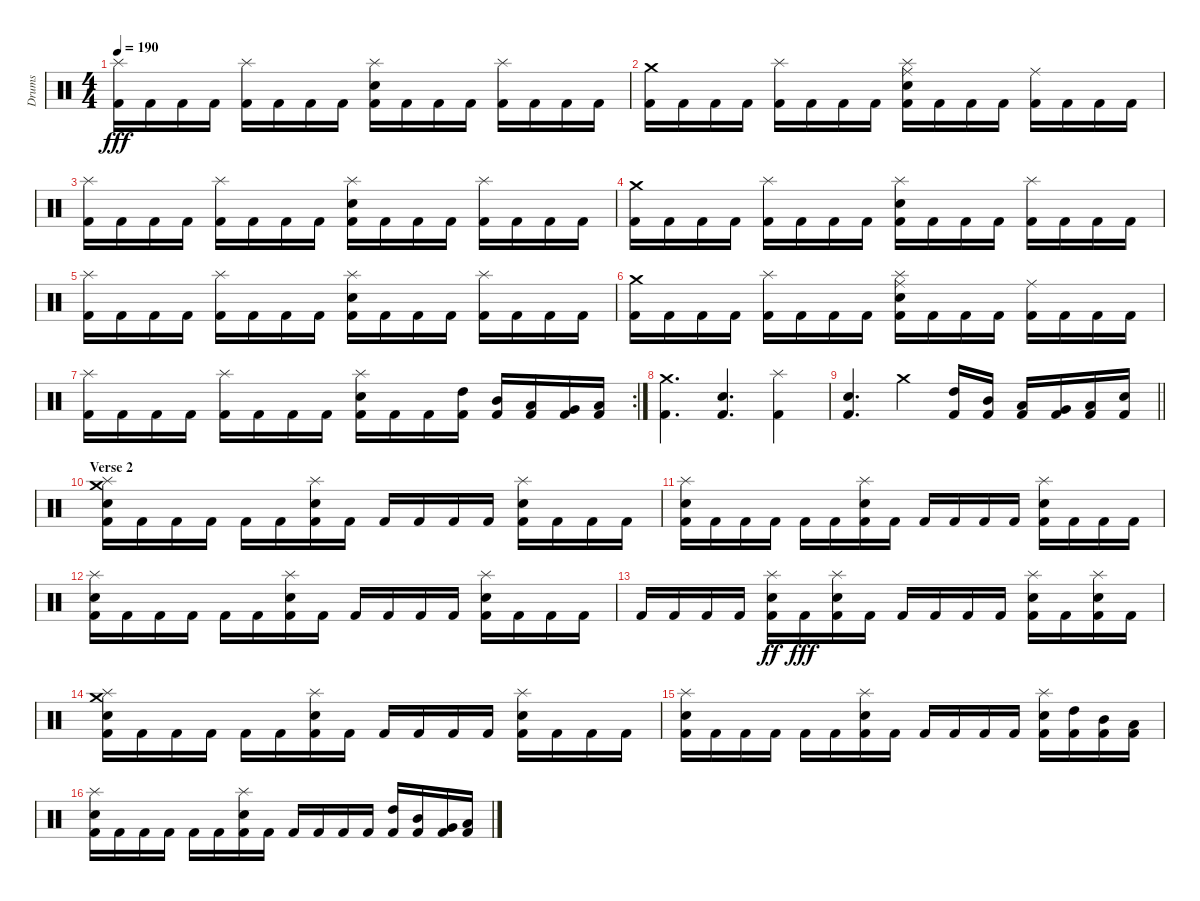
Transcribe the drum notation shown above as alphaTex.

\track ("Drums" "Drums") {instrument percussion}
\staff {score}
\articulation defaults
\ts (4 4)
\tempo 190
\clef neutral
\ks c
("Splash (hit)" "Kick (hit) 2").16{dy fff} "Kick (hit) 2".16 "Kick (hit) 2".16 "Kick (hit) 2".16 ("Splash (hit)" "Kick (hit) 2").16 "Kick (hit) 2".16 "Kick (hit) 2".16 "Kick (hit) 2".16 ("Splash (hit)" "Electric Snare (hit)" "Kick (hit) 2").16 "Kick (hit) 2".16 "Kick (hit) 2".16 "Kick (hit) 2".16 ("Splash (hit)" "Kick (hit) 2").16 "Kick (hit) 2".16 "Kick (hit) 2".16 "Kick (hit) 2".16 |
("Crash medium (hit)" "Kick (hit) 2").16 "Kick (hit) 2".16 "Kick (hit) 2".16 "Kick (hit) 2".16 ("Splash (hit)" "Kick (hit) 2").16 "Kick (hit) 2".16 "Kick (hit) 2".16 "Kick (hit) 2".16 ("Splash (hit)" "Ride (middle)" "Electric Snare (hit)" "Kick (hit) 2").16 "Kick (hit) 2".16 "Kick (hit) 2".16 "Kick (hit) 2".16 ("Ride (middle)" "Kick (hit) 2").16 "Kick (hit) 2".16 "Kick (hit) 2".16 "Kick (hit) 2".16 |
("Splash (hit)" "Kick (hit) 2").16 "Kick (hit) 2".16 "Kick (hit) 2".16 "Kick (hit) 2".16 ("Splash (hit)" "Kick (hit) 2").16 "Kick (hit) 2".16 "Kick (hit) 2".16 "Kick (hit) 2".16 ("Splash (hit)" "Electric Snare (hit)" "Kick (hit) 2").16 "Kick (hit) 2".16 "Kick (hit) 2".16 "Kick (hit) 2".16 ("Splash (hit)" "Kick (hit) 2").16 "Kick (hit) 2".16 "Kick (hit) 2".16 "Kick (hit) 2".16 |
("Crash medium (hit)" "Kick (hit) 2").16 "Kick (hit) 2".16 "Kick (hit) 2".16 "Kick (hit) 2".16 ("Splash (hit)" "Kick (hit) 2").16 "Kick (hit) 2".16 "Kick (hit) 2".16 "Kick (hit) 2".16 ("Splash (hit)" "Electric Snare (hit)" "Kick (hit) 2").16 "Kick (hit) 2".16 "Kick (hit) 2".16 "Kick (hit) 2".16 ("Splash (hit)" "Kick (hit) 2").16 "Kick (hit) 2".16 "Kick (hit) 2".16 "Kick (hit) 2".16 |
("Splash (hit)" "Kick (hit) 2").16 "Kick (hit) 2".16 "Kick (hit) 2".16 "Kick (hit) 2".16 ("Splash (hit)" "Kick (hit) 2").16 "Kick (hit) 2".16 "Kick (hit) 2".16 "Kick (hit) 2".16 ("Splash (hit)" "Electric Snare (hit)" "Kick (hit) 2").16 "Kick (hit) 2".16 "Kick (hit) 2".16 "Kick (hit) 2".16 ("Splash (hit)" "Kick (hit) 2").16 "Kick (hit) 2".16 "Kick (hit) 2".16 "Kick (hit) 2".16 |
("Crash medium (hit)" "Kick (hit) 2").16 "Kick (hit) 2".16 "Kick (hit) 2".16 "Kick (hit) 2".16 ("Splash (hit)" "Kick (hit) 2").16 "Kick (hit) 2".16 "Kick (hit) 2".16 "Kick (hit) 2".16 ("Splash (hit)" "Ride (middle)" "Electric Snare (hit)" "Kick (hit) 2").16 "Kick (hit) 2".16 "Kick (hit) 2".16 "Kick (hit) 2".16 ("Ride (middle)" "Kick (hit) 2").16 "Kick (hit) 2".16 "Kick (hit) 2".16 "Kick (hit) 2".16 |
\rc 2
("Splash (hit)" "Kick (hit) 2").16 "Kick (hit) 2".16 "Kick (hit) 2".16 "Kick (hit) 2".16 ("Splash (hit)" "Kick (hit) 2").16 "Kick (hit) 2".16 "Kick (hit) 2".16 "Kick (hit) 2".16 ("Splash (hit)" "Electric Snare (hit)" "Kick (hit) 2").16 "Kick (hit) 2".16 "Kick (hit) 2".16 ("High Tom (hit)" "Kick (hit) 2").16 ("Mid Tom (hit)" "Kick (hit) 2").16 ("Low Tom (hit)" "Kick (hit) 2").16 ("Very Low Tom (hit)" "Kick (hit) 2").16 ("Low Floor Tom (hit)" "Kick (hit) 2").16 |
("Crash medium (hit)" "Kick (hit) 2").4{d} ("Electric Snare (hit)" "Kick (hit) 2").4{d} ("Splash (hit)" "Kick (hit) 2").4 |
\barLineRight lightlight
("Electric Snare (hit)" "Kick (hit) 2").4{d} "Crash medium (hit)".4 ("High Tom (hit)" "Kick (hit) 2").16 ("Mid Tom (hit)" "Kick (hit) 2").16 ("Low Tom (hit)" "Kick (hit) 2").16 ("Very Low Tom (hit)" "Kick (hit) 2").16 ("Low Floor Tom (hit)" "Kick (hit) 2").16 ("Electric Snare (hit)" "Kick (hit) 2").16 |
\section ("" "Verse 2")
("Crash medium (hit)" "Splash (hit)" "Electric Snare (hit)" "Kick (hit) 2").16 "Kick (hit) 2".16 "Kick (hit) 2".16 "Kick (hit) 2".16 "Kick (hit) 2".16 "Kick (hit) 2".16 ("Splash (hit)" "Electric Snare (hit)" "Kick (hit) 2").16 "Kick (hit) 2".16 "Kick (hit) 2".16 "Kick (hit) 2".16 "Kick (hit) 2".16 "Kick (hit) 2".16 ("Splash (hit)" "Electric Snare (hit)" "Kick (hit) 2").16 "Kick (hit) 2".16 "Kick (hit) 2".16 "Kick (hit) 2".16 |
("Splash (hit)" "Electric Snare (hit)" "Kick (hit) 2").16 "Kick (hit) 2".16 "Kick (hit) 2".16 "Kick (hit) 2".16 "Kick (hit) 2".16 "Kick (hit) 2".16 ("Splash (hit)" "Electric Snare (hit)" "Kick (hit) 2").16 "Kick (hit) 2".16 "Kick (hit) 2".16 "Kick (hit) 2".16 "Kick (hit) 2".16 "Kick (hit) 2".16 ("Splash (hit)" "Electric Snare (hit)" "Kick (hit) 2").16 "Kick (hit) 2".16 "Kick (hit) 2".16 "Kick (hit) 2".16 |
("Splash (hit)" "Electric Snare (hit)" "Kick (hit) 2").16 "Kick (hit) 2".16 "Kick (hit) 2".16 "Kick (hit) 2".16 "Kick (hit) 2".16 "Kick (hit) 2".16 ("Splash (hit)" "Electric Snare (hit)" "Kick (hit) 2").16 "Kick (hit) 2".16 "Kick (hit) 2".16 "Kick (hit) 2".16 "Kick (hit) 2".16 "Kick (hit) 2".16 ("Splash (hit)" "Electric Snare (hit)" "Kick (hit) 2").16 "Kick (hit) 2".16 "Kick (hit) 2".16 "Kick (hit) 2".16 |
"Kick (hit) 2".16 "Kick (hit) 2".16 "Kick (hit) 2".16 "Kick (hit) 2".16 ("Splash (hit)" "Electric Snare (hit)" "Kick (hit) 2").16{dy ff} "Kick (hit) 2".16{dy fff} ("Splash (hit)" "Electric Snare (hit)" "Kick (hit) 2").16 "Kick (hit) 2".16 "Kick (hit) 2".16 "Kick (hit) 2".16 "Kick (hit) 2".16 "Kick (hit) 2".16 ("Splash (hit)" "Electric Snare (hit)" "Kick (hit) 2").16 "Kick (hit) 2".16 ("Splash (hit)" "Electric Snare (hit)" "Kick (hit) 2").16 "Kick (hit) 2".16 |
("Crash medium (hit)" "Splash (hit)" "Electric Snare (hit)" "Kick (hit) 2").16 "Kick (hit) 2".16 "Kick (hit) 2".16 "Kick (hit) 2".16 "Kick (hit) 2".16 "Kick (hit) 2".16 ("Splash (hit)" "Electric Snare (hit)" "Kick (hit) 2").16 "Kick (hit) 2".16 "Kick (hit) 2".16 "Kick (hit) 2".16 "Kick (hit) 2".16 "Kick (hit) 2".16 ("Splash (hit)" "Electric Snare (hit)" "Kick (hit) 2").16 "Kick (hit) 2".16 "Kick (hit) 2".16 "Kick (hit) 2".16 |
("Splash (hit)" "Electric Snare (hit)" "Kick (hit) 2").16 "Kick (hit) 2".16 "Kick (hit) 2".16 "Kick (hit) 2".16 "Kick (hit) 2".16 "Kick (hit) 2".16 ("Splash (hit)" "Electric Snare (hit)" "Kick (hit) 2").16 "Kick (hit) 2".16 "Kick (hit) 2".16 "Kick (hit) 2".16 "Kick (hit) 2".16 "Kick (hit) 2".16 ("Splash (hit)" "Electric Snare (hit)" "Kick (hit) 2").16 ("High Tom (hit)" "Kick (hit) 2").16 ("Mid Tom (hit)" "Kick (hit) 2").16 ("Low Tom (hit)" "Kick (hit) 2").16 |
("Splash (hit)" "Electric Snare (hit)" "Kick (hit) 2").16 "Kick (hit) 2".16 "Kick (hit) 2".16 "Kick (hit) 2".16 "Kick (hit) 2".16 "Kick (hit) 2".16 ("Splash (hit)" "Electric Snare (hit)" "Kick (hit) 2").16 "Kick (hit) 2".16 "Kick (hit) 2".16 "Kick (hit) 2".16 "Kick (hit) 2".16 "Kick (hit) 2".16 ("High Tom (hit)" "Kick (hit) 2").16 ("Mid Tom (hit)" "Kick (hit) 2").16 ("Very Low Tom (hit)" "Kick (hit) 2").16 ("Low Tom (hit)" "Kick (hit) 2").16
